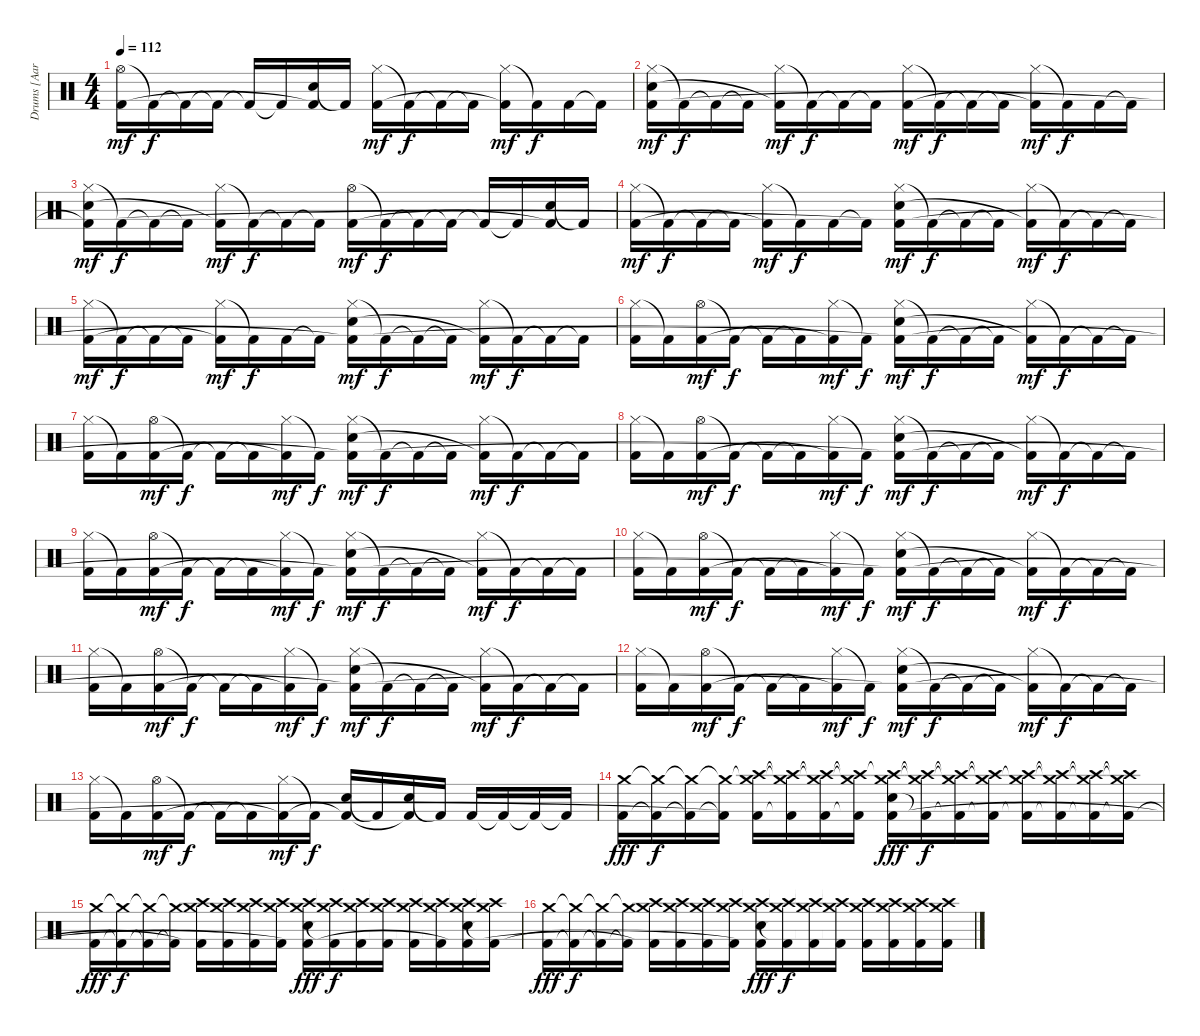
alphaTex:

\track ("Drums [Aaron Harris]" "Drums [Aar") {instrument percussion}
\staff {score}
\articulation defaults
\ts (4 4)
\tempo 112
\clef neutral
\ks c
("Hi-Hat (open)" "Kick (hit) 2").16{dy mf} "Kick (hit) 2"{t}.16{dy f} "Kick (hit) 2"{t}.16 "Kick (hit) 2"{t}.16 "Kick (hit) 2"{t}.16 "Kick (hit) 2"{t}.16 ("Electric Snare (hit)" "Kick (hit) 2"{t}).16 "Kick (hit) 2"{t}.16 ("Hi-Hat (closed)" "Kick (hit) 2").16{dy mf} "Kick (hit) 2"{t}.16{dy f} "Kick (hit) 2"{t}.16 "Kick (hit) 2"{t}.16 ("Hi-Hat (closed)" "Kick (hit) 2"{t}).16{dy mf} "Kick (hit) 2"{t}.16{dy f} "Kick (hit) 2".16 "Kick (hit) 2"{t}.16 |
("Hi-Hat (closed)" "Electric Snare (hit)" "Kick (hit) 2"{t}).16{dy mf} "Kick (hit) 2"{t}.16{dy f} "Kick (hit) 2"{t}.16 "Kick (hit) 2"{t}.16 ("Hi-Hat (closed)" "Kick (hit) 2"{t}).16{dy mf} "Kick (hit) 2"{t}.16{dy f} "Kick (hit) 2"{t}.16 "Kick (hit) 2"{t}.16 ("Hi-Hat (closed)" "Kick (hit) 2").16{dy mf} "Kick (hit) 2"{t}.16{dy f} "Kick (hit) 2"{t}.16 "Kick (hit) 2"{t}.16 ("Hi-Hat (closed)" "Kick (hit) 2"{t}).16{dy mf} "Kick (hit) 2"{t}.16{dy f} "Kick (hit) 2".16 "Kick (hit) 2"{t}.16 |
("Hi-Hat (closed)" "Electric Snare (hit)" "Kick (hit) 2"{t}).16{dy mf} "Kick (hit) 2"{t}.16{dy f} "Kick (hit) 2"{t}.16 "Kick (hit) 2"{t}.16 ("Hi-Hat (closed)" "Kick (hit) 2"{t}).16{dy mf} "Kick (hit) 2"{t}.16{dy f} "Kick (hit) 2"{t}.16 "Kick (hit) 2"{t}.16 ("Hi-Hat (open)" "Kick (hit) 2").16{dy mf} "Kick (hit) 2"{t}.16{dy f} "Kick (hit) 2"{t}.16 "Kick (hit) 2"{t}.16 "Kick (hit) 2"{t}.16 "Kick (hit) 2"{t}.16 ("Electric Snare (hit)" "Kick (hit) 2"{t}).16 "Kick (hit) 2"{t}.16 |
("Hi-Hat (closed)" "Kick (hit) 2").16{dy mf} "Kick (hit) 2"{t}.16{dy f} "Kick (hit) 2"{t}.16 "Kick (hit) 2"{t}.16 ("Hi-Hat (closed)" "Kick (hit) 2"{t}).16{dy mf} "Kick (hit) 2"{t}.16{dy f} "Kick (hit) 2".16 "Kick (hit) 2"{t}.16 ("Hi-Hat (closed)" "Electric Snare (hit)" "Kick (hit) 2"{t}).16{dy mf} "Kick (hit) 2"{t}.16{dy f} "Kick (hit) 2"{t}.16 "Kick (hit) 2"{t}.16 ("Hi-Hat (closed)" "Kick (hit) 2"{t}).16{dy mf} "Kick (hit) 2"{t}.16{dy f} "Kick (hit) 2"{t}.16 "Kick (hit) 2"{t}.16 |
("Hi-Hat (closed)" "Kick (hit) 2").16{dy mf} "Kick (hit) 2"{t}.16{dy f} "Kick (hit) 2"{t}.16 "Kick (hit) 2"{t}.16 ("Hi-Hat (closed)" "Kick (hit) 2"{t}).16{dy mf} "Kick (hit) 2"{t}.16{dy f} "Kick (hit) 2".16 "Kick (hit) 2"{t}.16 ("Hi-Hat (closed)" "Electric Snare (hit)" "Kick (hit) 2"{t}).16{dy mf} "Kick (hit) 2"{t}.16{dy f} "Kick (hit) 2"{t}.16 "Kick (hit) 2"{t}.16 ("Hi-Hat (closed)" "Kick (hit) 2"{t}).16{dy mf} "Kick (hit) 2"{t}.16{dy f} "Kick (hit) 2"{t}.16 "Kick (hit) 2"{t}.16 |
("Hi-Hat (closed)" "Kick (hit) 2").16 "Kick (hit) 2"{t}.16 ("Hi-Hat (open)" "Kick (hit) 2").16{dy mf} "Kick (hit) 2"{t}.16{dy f} "Kick (hit) 2"{t}.16 "Kick (hit) 2"{t}.16 ("Hi-Hat (closed)" "Kick (hit) 2"{t}).16{dy mf} "Kick (hit) 2"{t}.16{dy f} ("Hi-Hat (closed)" "Electric Snare (hit)" "Kick (hit) 2"{t}).16{dy mf} "Kick (hit) 2"{t}.16{dy f} "Kick (hit) 2"{t}.16 "Kick (hit) 2"{t}.16 ("Hi-Hat (closed)" "Kick (hit) 2"{t}).16{dy mf} "Kick (hit) 2"{t}.16{dy f} "Kick (hit) 2"{t}.16 "Kick (hit) 2"{t}.16 |
("Hi-Hat (closed)" "Kick (hit) 2").16 "Kick (hit) 2"{t}.16 ("Hi-Hat (open)" "Kick (hit) 2").16{dy mf} "Kick (hit) 2"{t}.16{dy f} "Kick (hit) 2"{t}.16 "Kick (hit) 2"{t}.16 ("Hi-Hat (closed)" "Kick (hit) 2"{t}).16{dy mf} "Kick (hit) 2"{t}.16{dy f} ("Hi-Hat (closed)" "Electric Snare (hit)" "Kick (hit) 2"{t}).16{dy mf} "Kick (hit) 2"{t}.16{dy f} "Kick (hit) 2"{t}.16 "Kick (hit) 2"{t}.16 ("Hi-Hat (closed)" "Kick (hit) 2"{t}).16{dy mf} "Kick (hit) 2"{t}.16{dy f} "Kick (hit) 2"{t}.16 "Kick (hit) 2"{t}.16 |
("Hi-Hat (closed)" "Kick (hit) 2").16 "Kick (hit) 2"{t}.16 ("Hi-Hat (open)" "Kick (hit) 2").16{dy mf} "Kick (hit) 2"{t}.16{dy f} "Kick (hit) 2"{t}.16 "Kick (hit) 2"{t}.16 ("Hi-Hat (closed)" "Kick (hit) 2"{t}).16{dy mf} "Kick (hit) 2"{t}.16{dy f} ("Hi-Hat (closed)" "Electric Snare (hit)" "Kick (hit) 2"{t}).16{dy mf} "Kick (hit) 2"{t}.16{dy f} "Kick (hit) 2"{t}.16 "Kick (hit) 2"{t}.16 ("Hi-Hat (closed)" "Kick (hit) 2"{t}).16{dy mf} "Kick (hit) 2"{t}.16{dy f} "Kick (hit) 2"{t}.16 "Kick (hit) 2"{t}.16 |
("Hi-Hat (closed)" "Kick (hit) 2").16 "Kick (hit) 2"{t}.16 ("Hi-Hat (open)" "Kick (hit) 2").16{dy mf} "Kick (hit) 2"{t}.16{dy f} "Kick (hit) 2"{t}.16 "Kick (hit) 2"{t}.16 ("Hi-Hat (closed)" "Kick (hit) 2"{t}).16{dy mf} "Kick (hit) 2"{t}.16{dy f} ("Hi-Hat (closed)" "Electric Snare (hit)" "Kick (hit) 2"{t}).16{dy mf} "Kick (hit) 2"{t}.16{dy f} "Kick (hit) 2"{t}.16 "Kick (hit) 2"{t}.16 ("Hi-Hat (closed)" "Kick (hit) 2"{t}).16{dy mf} "Kick (hit) 2"{t}.16{dy f} "Kick (hit) 2"{t}.16 "Kick (hit) 2"{t}.16 |
("Hi-Hat (closed)" "Kick (hit) 2").16 "Kick (hit) 2"{t}.16 ("Hi-Hat (open)" "Kick (hit) 2").16{dy mf} "Kick (hit) 2"{t}.16{dy f} "Kick (hit) 2"{t}.16 "Kick (hit) 2"{t}.16 ("Hi-Hat (closed)" "Kick (hit) 2"{t}).16{dy mf} "Kick (hit) 2"{t}.16{dy f} ("Hi-Hat (closed)" "Electric Snare (hit)" "Kick (hit) 2"{t}).16{dy mf} "Kick (hit) 2"{t}.16{dy f} "Kick (hit) 2"{t}.16 "Kick (hit) 2"{t}.16 ("Hi-Hat (closed)" "Kick (hit) 2"{t}).16{dy mf} "Kick (hit) 2"{t}.16{dy f} "Kick (hit) 2"{t}.16 "Kick (hit) 2"{t}.16 |
("Hi-Hat (closed)" "Kick (hit) 2").16 "Kick (hit) 2"{t}.16 ("Hi-Hat (open)" "Kick (hit) 2").16{dy mf} "Kick (hit) 2"{t}.16{dy f} "Kick (hit) 2"{t}.16 "Kick (hit) 2"{t}.16 ("Hi-Hat (closed)" "Kick (hit) 2"{t}).16{dy mf} "Kick (hit) 2"{t}.16{dy f} ("Hi-Hat (closed)" "Electric Snare (hit)" "Kick (hit) 2"{t}).16{dy mf} "Kick (hit) 2"{t}.16{dy f} "Kick (hit) 2"{t}.16 "Kick (hit) 2"{t}.16 ("Hi-Hat (closed)" "Kick (hit) 2"{t}).16{dy mf} "Kick (hit) 2"{t}.16{dy f} "Kick (hit) 2"{t}.16 "Kick (hit) 2"{t}.16 |
("Hi-Hat (closed)" "Kick (hit) 2").16 "Kick (hit) 2"{t}.16 ("Hi-Hat (open)" "Kick (hit) 2").16{dy mf} "Kick (hit) 2"{t}.16{dy f} "Kick (hit) 2"{t}.16 "Kick (hit) 2"{t}.16 ("Hi-Hat (closed)" "Kick (hit) 2"{t}).16{dy mf} "Kick (hit) 2"{t}.16{dy f} ("Hi-Hat (closed)" "Electric Snare (hit)" "Kick (hit) 2"{t}).16{dy mf} "Kick (hit) 2"{t}.16{dy f} "Kick (hit) 2"{t}.16 "Kick (hit) 2"{t}.16 ("Hi-Hat (closed)" "Kick (hit) 2"{t}).16{dy mf} "Kick (hit) 2"{t}.16{dy f} "Kick (hit) 2"{t}.16 "Kick (hit) 2"{t}.16 |
("Hi-Hat (closed)" "Kick (hit) 2").16 "Kick (hit) 2"{t}.16 ("Hi-Hat (open)" "Kick (hit) 2").16{dy mf} "Kick (hit) 2"{t}.16{dy f} "Kick (hit) 2"{t}.16 "Kick (hit) 2"{t}.16 ("Hi-Hat (closed)" "Kick (hit) 2"{t}).16{dy mf} "Kick (hit) 2"{t}.16{dy f} ("Electric Snare (hit)" "Kick (hit) 2"{t}).16 "Kick (hit) 2"{t}.16 ("Electric Snare (hit)" "Kick (hit) 2"{t}).16 "Kick (hit) 2"{t}.16 "Kick (hit) 2".16 "Kick (hit) 2"{t}.16 "Kick (hit) 2"{t}.16 "Kick (hit) 2"{t}.16 |
("Crash medium (hit)" "Kick (hit) 2").16{dy fff} ("Crash medium (hit)"{t} "Kick (hit) 2"{t}).16{dy f} ("Crash medium (hit)"{t} "Kick (hit) 2"{t}).16 ("Crash medium (hit)"{t} "Kick (hit) 2"{t}).16 ("Crash medium (hit)"{t} "Crash high (hit)" "Kick (hit) 2"{t}).16 ("Crash medium (hit)"{t} "Crash high (hit)"{t} "Kick (hit) 2"{t}).16 ("Crash medium (hit)"{t} "Crash high (hit)"{t} "Kick (hit) 2").16 ("Crash medium (hit)"{t} "Crash high (hit)"{t} "Kick (hit) 2"{t}).16 ("Crash medium (hit)" "Crash high (hit)"{t} "Electric Snare (hit)" "Kick (hit) 2").16{dy fff} ("Crash medium (hit)"{t} "Crash high (hit)"{t} "Kick (hit) 2"{t}).16{dy f} ("Crash medium (hit)"{t} "Crash high (hit)"{t} "Kick (hit) 2"{t}).16 ("Crash medium (hit)"{t} "Crash high (hit)"{t} "Kick (hit) 2"{t}).16 ("Crash medium (hit)"{t} "Crash high (hit)" "Kick (hit) 2"{t}).16 ("Crash medium (hit)"{t} "Crash high (hit)"{t} "Kick (hit) 2"{t}).16 ("Crash medium (hit)"{t} "Crash high (hit)"{t} "Kick (hit) 2"{t}).16 ("Crash medium (hit)"{t} "Crash high (hit)"{t} "Kick (hit) 2"{t}).16 |
("Crash medium (hit)" "Kick (hit) 2").16{dy fff} ("Crash medium (hit)"{t} "Kick (hit) 2"{t}).16{dy f} ("Crash medium (hit)"{t} "Kick (hit) 2"{t}).16 ("Crash medium (hit)"{t} "Kick (hit) 2"{t}).16 ("Crash medium (hit)"{t} "Crash high (hit)" "Kick (hit) 2"{t}).16 ("Crash medium (hit)"{t} "Crash high (hit)"{t} "Kick (hit) 2"{t}).16 ("Crash medium (hit)"{t} "Crash high (hit)"{t} "Kick (hit) 2").16 ("Crash medium (hit)"{t} "Crash high (hit)"{t} "Kick (hit) 2"{t}).16 ("Crash medium (hit)" "Crash high (hit)"{t} "Electric Snare (hit)" "Kick (hit) 2"{t}).16{dy fff} ("Crash medium (hit)"{t} "Crash high (hit)"{t} "Kick (hit) 2"{t}).16{dy f} ("Crash medium (hit)"{t} "Crash high (hit)"{t} "Kick (hit) 2"{t}).16 ("Crash medium (hit)"{t} "Crash high (hit)"{t} "Kick (hit) 2"{t}).16 ("Crash medium (hit)"{t} "Crash high (hit)" "Kick (hit) 2"{t}).16 ("Crash medium (hit)"{t} "Crash high (hit)"{t} "Kick (hit) 2"{t}).16 ("Crash medium (hit)"{t} "Crash high (hit)"{t} "Electric Snare (hit)" "Kick (hit) 2"{t}).16 ("Crash medium (hit)"{t} "Crash high (hit)"{t} "Kick (hit) 2"{t}).16 |
("Crash medium (hit)" "Kick (hit) 2").16{dy fff} ("Crash medium (hit)"{t} "Kick (hit) 2"{t}).16{dy f} ("Crash medium (hit)"{t} "Kick (hit) 2"{t}).16 ("Crash medium (hit)"{t} "Kick (hit) 2"{t}).16 ("Crash medium (hit)"{t} "Crash high (hit)" "Kick (hit) 2"{t}).16 ("Crash medium (hit)"{t} "Crash high (hit)"{t} "Kick (hit) 2"{t}).16 ("Crash medium (hit)"{t} "Crash high (hit)"{t} "Kick (hit) 2").16 ("Crash medium (hit)"{t} "Crash high (hit)"{t} "Kick (hit) 2"{t}).16 ("Crash medium (hit)" "Crash high (hit)"{t} "Electric Snare (hit)" "Kick (hit) 2"{t}).16{dy fff} ("Crash medium (hit)"{t} "Crash high (hit)"{t} "Kick (hit) 2"{t}).16{dy f} ("Crash medium (hit)"{t} "Crash high (hit)"{t} "Kick (hit) 2"{t}).16 ("Crash medium (hit)"{t} "Crash high (hit)"{t} "Kick (hit) 2"{t}).16 ("Crash medium (hit)"{t} "Crash high (hit)" "Kick (hit) 2"{t}).16 ("Crash medium (hit)"{t} "Crash high (hit)"{t} "Kick (hit) 2"{t}).16 ("Crash medium (hit)"{t} "Crash high (hit)"{t} "Kick (hit) 2"{t}).16 ("Crash medium (hit)"{t} "Crash high (hit)"{t} "Kick (hit) 2"{t}).16
